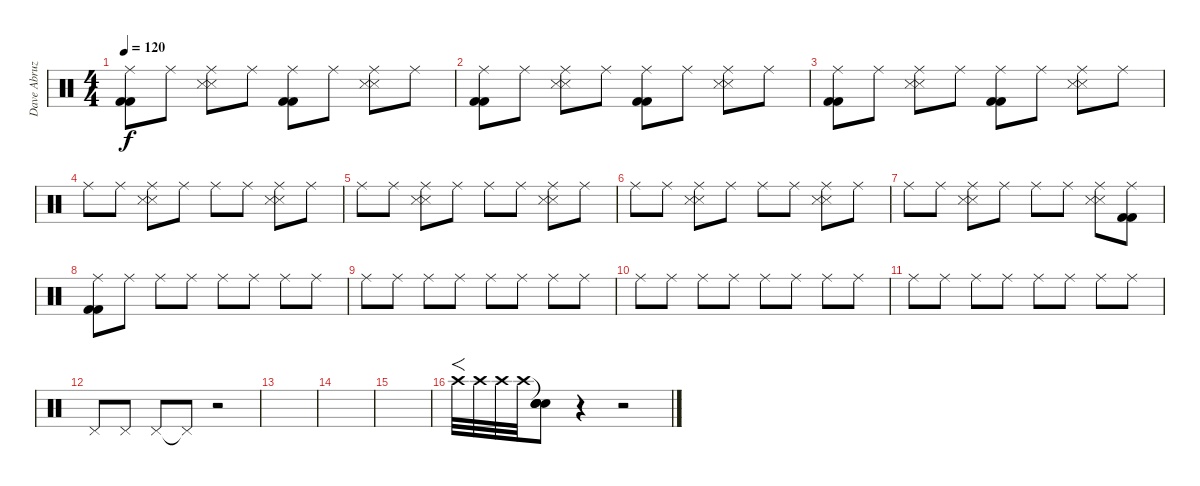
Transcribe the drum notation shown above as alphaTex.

\track ("Dave Abruzzese" "Dave Abruz") {instrument percussion}
\staff {score}
\articulation defaults
\ts (4 4)
\tempo 120
\clef neutral
\ks c
("Ride (middle)" "Kick (hit) 2" "Kick (hit) 2").8{dy f} "Ride (middle)".8 ("Ride (middle)" "Snare (side stick) 3" "Snare (side stick) 3").8 "Ride (middle)".8 ("Ride (middle)" "Kick (hit) 2" "Kick (hit) 2").8 "Ride (middle)".8 ("Ride (middle)" "Snare (side stick) 3" "Snare (side stick) 3").8 "Ride (middle)".8 |
("Ride (middle)" "Kick (hit) 2" "Kick (hit) 2").8 "Ride (middle)".8 ("Ride (middle)" "Snare (side stick) 3" "Snare (side stick) 3").8 "Ride (middle)".8 ("Ride (middle)" "Kick (hit) 2" "Kick (hit) 2").8 "Ride (middle)".8 ("Ride (middle)" "Snare (side stick) 3" "Snare (side stick) 3").8 "Ride (middle)".8 |
("Ride (middle)" "Kick (hit) 2" "Kick (hit) 2").8 "Ride (middle)".8 ("Ride (middle)" "Snare (side stick) 3" "Snare (side stick) 3").8 "Ride (middle)".8 ("Ride (middle)" "Kick (hit) 2" "Kick (hit) 2").8 "Ride (middle)".8 ("Ride (middle)" "Snare (side stick) 3" "Snare (side stick) 3").8 "Ride (middle)".8 |
"Ride (middle)".8 "Ride (middle)".8 ("Ride (middle)" "Snare (side stick) 3" "Snare (side stick) 3").8 "Ride (middle)".8 "Ride (middle)".8 "Ride (middle)".8 ("Ride (middle)" "Snare (side stick) 3" "Snare (side stick) 3").8 "Ride (middle)".8 |
"Ride (middle)".8 "Ride (middle)".8 ("Ride (middle)" "Snare (side stick) 3" "Snare (side stick) 3").8 "Ride (middle)".8 "Ride (middle)".8 "Ride (middle)".8 ("Ride (middle)" "Snare (side stick) 3" "Snare (side stick) 3").8 "Ride (middle)".8 |
"Ride (middle)".8 "Ride (middle)".8 ("Ride (middle)" "Snare (side stick) 3" "Snare (side stick) 3").8 "Ride (middle)".8 "Ride (middle)".8 "Ride (middle)".8 ("Ride (middle)" "Snare (side stick) 3" "Snare (side stick) 3").8 "Ride (middle)".8 |
"Ride (middle)".8 "Ride (middle)".8 ("Ride (middle)" "Snare (side stick) 3" "Snare (side stick) 3").8 "Ride (middle)".8 "Ride (middle)".8 "Ride (middle)".8 ("Ride (middle)" "Snare (side stick) 3" "Snare (side stick) 3").8 ("Ride (middle)" "Kick (hit) 2" "Kick (hit) 2").8 |
("Ride (middle)" "Kick (hit) 2" "Kick (hit) 2").8 "Ride (middle)".8 "Ride (middle)".8 "Ride (middle)".8 "Ride (middle)".8 "Ride (middle)".8 "Ride (middle)".8 "Ride (middle)".8 |
"Ride (middle)".8 "Ride (middle)".8 "Ride (middle)".8 "Ride (middle)".8 "Ride (middle)".8 "Ride (middle)".8 "Ride (middle)".8 "Ride (middle)".8 |
"Ride (middle)".8 "Ride (middle)".8 "Ride (middle)".8 "Ride (middle)".8 "Ride (middle)".8 "Ride (middle)".8 "Ride (middle)".8 "Ride (middle)".8 |
"Ride (middle)".8 "Ride (middle)".8 "Ride (middle)".8 "Ride (middle)".8 "Ride (middle)".8 "Ride (middle)".8 "Ride (middle)".8 "Ride (middle)".8 |
"Pedal Hi-Hat (hit)".8 "Pedal Hi-Hat (hit)".8 "Pedal Hi-Hat (hit)".8 "Pedal Hi-Hat (hit)"{t}.8 r.2 |
|
|
|
"Crash high (hit)".32{f} "Crash high (hit)".32 "Crash high (hit)".32 "Crash high (hit)".32 ("Snare (hit)"{t} "Snare (hit)" "Snare (hit)" "Snare (hit)").8 r.4 r.2
